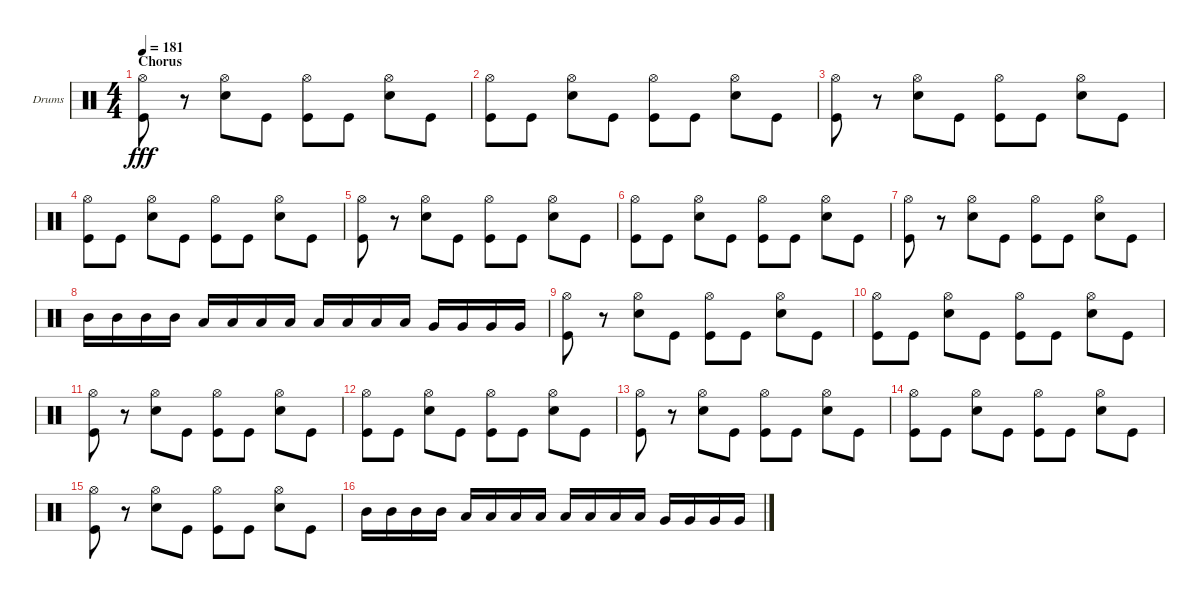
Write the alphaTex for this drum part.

\bracketExtendMode groupsimilarinstruments
\firstSystemTrackNameOrientation horizontal
\otherSystemsTrackNameOrientation horizontal
\track ("Drumkit" "Drums") {solo instrument percussion}
\staff {score}
\articulation defaults
\ts (4 4)
\section ("" "Chorus")
\tempo 181
\clef neutral
\scale
0.333333
\ks c
("Kick (hit)" "Hi-Hat (open)").8{dy fff} r.8 ("Hi-Hat (open)" "Snare (hit) 2").8 "Kick (hit)".8 ("Kick (hit)" "Hi-Hat (open)").8 "Kick (hit)".8 ("Hi-Hat (open)" "Snare (hit) 2").8 "Kick (hit)".8 |
\scale
0.333333 ("Kick (hit)" "Hi-Hat (open)").8 "Kick (hit)".8 ("Hi-Hat (open)" "Snare (hit) 2").8 "Kick (hit)".8 ("Kick (hit)" "Hi-Hat (open)").8 "Kick (hit)".8 ("Hi-Hat (open)" "Snare (hit) 2").8 "Kick (hit)".8 |
\scale
0.333333 ("Kick (hit)" "Hi-Hat (open)").8 r.8 ("Hi-Hat (open)" "Snare (hit) 2").8 "Kick (hit)".8 ("Kick (hit)" "Hi-Hat (open)").8 "Kick (hit)".8 ("Hi-Hat (open)" "Snare (hit) 2").8 "Kick (hit)".8 |
\scale
0.333333 ("Kick (hit)" "Hi-Hat (open)").8 "Kick (hit)".8 ("Hi-Hat (open)" "Snare (hit) 2").8 "Kick (hit)".8 ("Kick (hit)" "Hi-Hat (open)").8 "Kick (hit)".8 ("Hi-Hat (open)" "Snare (hit) 2").8 "Kick (hit)".8 |
\scale
0.333333 ("Kick (hit)" "Hi-Hat (open)").8 r.8 ("Hi-Hat (open)" "Snare (hit) 2").8 "Kick (hit)".8 ("Kick (hit)" "Hi-Hat (open)").8 "Kick (hit)".8 ("Hi-Hat (open)" "Snare (hit) 2").8 "Kick (hit)".8 |
\scale
0.333333 ("Kick (hit)" "Hi-Hat (open)").8 "Kick (hit)".8 ("Hi-Hat (open)" "Snare (hit) 2").8 "Kick (hit)".8 ("Kick (hit)" "Hi-Hat (open)").8 "Kick (hit)".8 ("Hi-Hat (open)" "Snare (hit) 2").8 "Kick (hit)".8 |
\scale
0.333333 ("Kick (hit)" "Hi-Hat (open)").8 r.8 ("Hi-Hat (open)" "Snare (hit) 2").8 "Kick (hit)".8 ("Kick (hit)" "Hi-Hat (open)").8 "Kick (hit)".8 ("Hi-Hat (open)" "Snare (hit) 2").8 "Kick (hit)".8 |
\scale
0.333333 "Mid Tom (hit)".16 "Mid Tom (hit)".16 "Mid Tom (hit)".16 "Mid Tom (hit)".16 "Low Tom (hit)".16 "Low Tom (hit)".16 "Low Tom (hit)".16 "Low Tom (hit)".16 "Low Tom (hit)".16 "Low Tom (hit)".16 "Low Tom (hit)".16 "Low Tom (hit)".16 "Very Low Tom (hit)".16 "Very Low Tom (hit)".16 "Very Low Tom (hit)".16 "Very Low Tom (hit)".16 |
\scale
0.333333 ("Kick (hit)" "Hi-Hat (open)").8 r.8 ("Hi-Hat (open)" "Snare (hit) 2").8 "Kick (hit)".8 ("Kick (hit)" "Hi-Hat (open)").8 "Kick (hit)".8 ("Hi-Hat (open)" "Snare (hit) 2").8 "Kick (hit)".8 |
\scale
0.333333 ("Kick (hit)" "Hi-Hat (open)").8 "Kick (hit)".8 ("Hi-Hat (open)" "Snare (hit) 2").8 "Kick (hit)".8 ("Kick (hit)" "Hi-Hat (open)").8 "Kick (hit)".8 ("Hi-Hat (open)" "Snare (hit) 2").8 "Kick (hit)".8 |
\scale
0.333333 ("Kick (hit)" "Hi-Hat (open)").8 r.8 ("Hi-Hat (open)" "Snare (hit) 2").8 "Kick (hit)".8 ("Kick (hit)" "Hi-Hat (open)").8 "Kick (hit)".8 ("Hi-Hat (open)" "Snare (hit) 2").8 "Kick (hit)".8 |
\scale
0.333333 ("Kick (hit)" "Hi-Hat (open)").8 "Kick (hit)".8 ("Hi-Hat (open)" "Snare (hit) 2").8 "Kick (hit)".8 ("Kick (hit)" "Hi-Hat (open)").8 "Kick (hit)".8 ("Hi-Hat (open)" "Snare (hit) 2").8 "Kick (hit)".8 |
\scale
0.333333 ("Kick (hit)" "Hi-Hat (open)").8 r.8 ("Hi-Hat (open)" "Snare (hit) 2").8 "Kick (hit)".8 ("Kick (hit)" "Hi-Hat (open)").8 "Kick (hit)".8 ("Hi-Hat (open)" "Snare (hit) 2").8 "Kick (hit)".8 |
\scale
0.333333 ("Kick (hit)" "Hi-Hat (open)").8 "Kick (hit)".8 ("Hi-Hat (open)" "Snare (hit) 2").8 "Kick (hit)".8 ("Kick (hit)" "Hi-Hat (open)").8 "Kick (hit)".8 ("Hi-Hat (open)" "Snare (hit) 2").8 "Kick (hit)".8 |
\scale
0.333333 ("Kick (hit)" "Hi-Hat (open)").8 r.8 ("Hi-Hat (open)" "Snare (hit) 2").8 "Kick (hit)".8 ("Kick (hit)" "Hi-Hat (open)").8 "Kick (hit)".8 ("Hi-Hat (open)" "Snare (hit) 2").8 "Kick (hit)".8 |
\scale
0.333333 "Mid Tom (hit)".16 "Mid Tom (hit)".16 "Mid Tom (hit)".16 "Mid Tom (hit)".16 "Low Tom (hit)".16 "Low Tom (hit)".16 "Low Tom (hit)".16 "Low Tom (hit)".16 "Low Tom (hit)".16 "Low Tom (hit)".16 "Low Tom (hit)".16 "Low Tom (hit)".16 "Very Low Tom (hit)".16 "Very Low Tom (hit)".16 "Very Low Tom (hit)".16 "Very Low Tom (hit)".16
